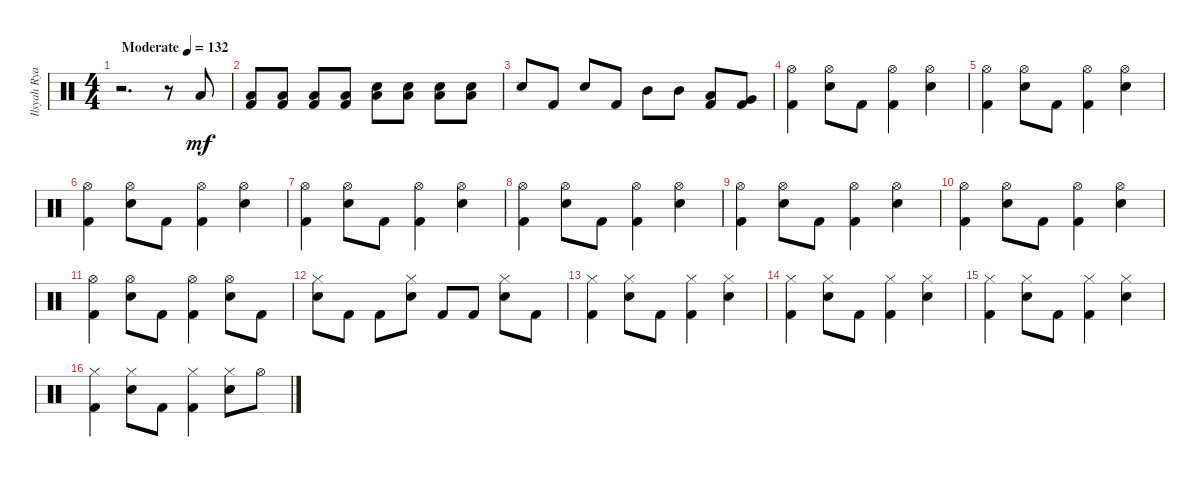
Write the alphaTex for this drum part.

\track ("Ilsyah Ryan Reza (drum)" "Ilsyah Rya") {instrument percussion}
\staff {score}
\articulation defaults
\ts (4 4)
\tempo (132 "Moderate")
\clef neutral
\ks c
r.2{d dy mf} r.8 "Low Floor Tom (hit)".8 |
("Low Floor Tom (hit)" "Kick (hit) 2").8 ("Low Floor Tom (hit)" "Kick (hit) 2").8 ("Low Floor Tom (hit)" "Kick (hit) 2").8 ("Low Floor Tom (hit)" "Kick (hit) 2").8 ("Low Floor Tom (hit)" "Electric Snare (hit)").8 ("Low Floor Tom (hit)" "Electric Snare (hit)").8 ("Low Floor Tom (hit)" "Electric Snare (hit)").8 ("Low Floor Tom (hit)" "Electric Snare (hit)").8 |
"Electric Snare (hit)".8 "Kick (hit) 2".8 "Electric Snare (hit)".8 "Kick (hit) 2".8 "Mid Tom (hit)".8 "Mid Tom (hit)".8 ("Low Tom (hit)" "Kick (hit) 2").8 ("Very Low Tom (hit)" "Kick (hit) 2").8 |
("Hi-Hat (open)" "Kick (hit) 2").4 ("Hi-Hat (open)" "Electric Snare (hit)").8 "Kick (hit) 2".8 ("Hi-Hat (open)" "Kick (hit) 2").4 ("Hi-Hat (open)" "Electric Snare (hit)").4 |
("Hi-Hat (open)" "Kick (hit) 2").4 ("Hi-Hat (open)" "Electric Snare (hit)").8 "Kick (hit) 2".8 ("Hi-Hat (open)" "Kick (hit) 2").4 ("Hi-Hat (open)" "Electric Snare (hit)").4 |
("Hi-Hat (open)" "Kick (hit) 2").4 ("Hi-Hat (open)" "Electric Snare (hit)").8 "Kick (hit) 2".8 ("Hi-Hat (open)" "Kick (hit) 2").4 ("Hi-Hat (open)" "Electric Snare (hit)").4 |
("Hi-Hat (open)" "Kick (hit) 2").4 ("Hi-Hat (open)" "Electric Snare (hit)").8 "Kick (hit) 2".8 ("Hi-Hat (open)" "Kick (hit) 2").4 ("Hi-Hat (open)" "Electric Snare (hit)").4 |
("Hi-Hat (open)" "Kick (hit) 2").4 ("Hi-Hat (open)" "Electric Snare (hit)").8 "Kick (hit) 2".8 ("Hi-Hat (open)" "Kick (hit) 2").4 ("Hi-Hat (open)" "Electric Snare (hit)").4 |
("Hi-Hat (open)" "Kick (hit) 2").4 ("Hi-Hat (open)" "Electric Snare (hit)").8 "Kick (hit) 2".8 ("Hi-Hat (open)" "Kick (hit) 2").4 ("Hi-Hat (open)" "Electric Snare (hit)").4 |
("Hi-Hat (open)" "Kick (hit) 2").4 ("Hi-Hat (open)" "Electric Snare (hit)").8 "Kick (hit) 2".8 ("Hi-Hat (open)" "Kick (hit) 2").4 ("Hi-Hat (open)" "Electric Snare (hit)").4 |
("Hi-Hat (open)" "Kick (hit) 2").4 ("Hi-Hat (open)" "Electric Snare (hit)").8 "Kick (hit) 2".8 ("Hi-Hat (open)" "Kick (hit) 2").4 ("Hi-Hat (open)" "Electric Snare (hit)").8 "Kick (hit) 2".8 |
("Hi-Hat (closed)" "Electric Snare (hit)").8 "Kick (hit) 2".8 "Kick (hit) 2".8 ("Hi-Hat (closed)" "Electric Snare (hit)").8 "Kick (hit) 2".8 "Kick (hit) 2".8 ("Hi-Hat (closed)" "Electric Snare (hit)").8 "Kick (hit) 2".8 |
("Hi-Hat (closed)" "Kick (hit) 2").4 ("Hi-Hat (closed)" "Electric Snare (hit)").8 "Kick (hit) 2".8 ("Hi-Hat (closed)" "Kick (hit) 2").4 ("Hi-Hat (closed)" "Electric Snare (hit)").4 |
("Hi-Hat (closed)" "Kick (hit) 2").4 ("Hi-Hat (closed)" "Electric Snare (hit)").8 "Kick (hit) 2".8 ("Hi-Hat (closed)" "Kick (hit) 2").4 ("Hi-Hat (closed)" "Electric Snare (hit)").4 |
("Hi-Hat (closed)" "Kick (hit) 2").4 ("Hi-Hat (closed)" "Electric Snare (hit)").8 "Kick (hit) 2".8 ("Hi-Hat (closed)" "Kick (hit) 2").4 ("Hi-Hat (closed)" "Electric Snare (hit)").4 |
("Hi-Hat (closed)" "Kick (hit) 2").4 ("Hi-Hat (closed)" "Electric Snare (hit)").8 "Kick (hit) 2".8 ("Hi-Hat (closed)" "Kick (hit) 2").4 ("Hi-Hat (closed)" "Electric Snare (hit)").8 "Hi-Hat (open)".8
